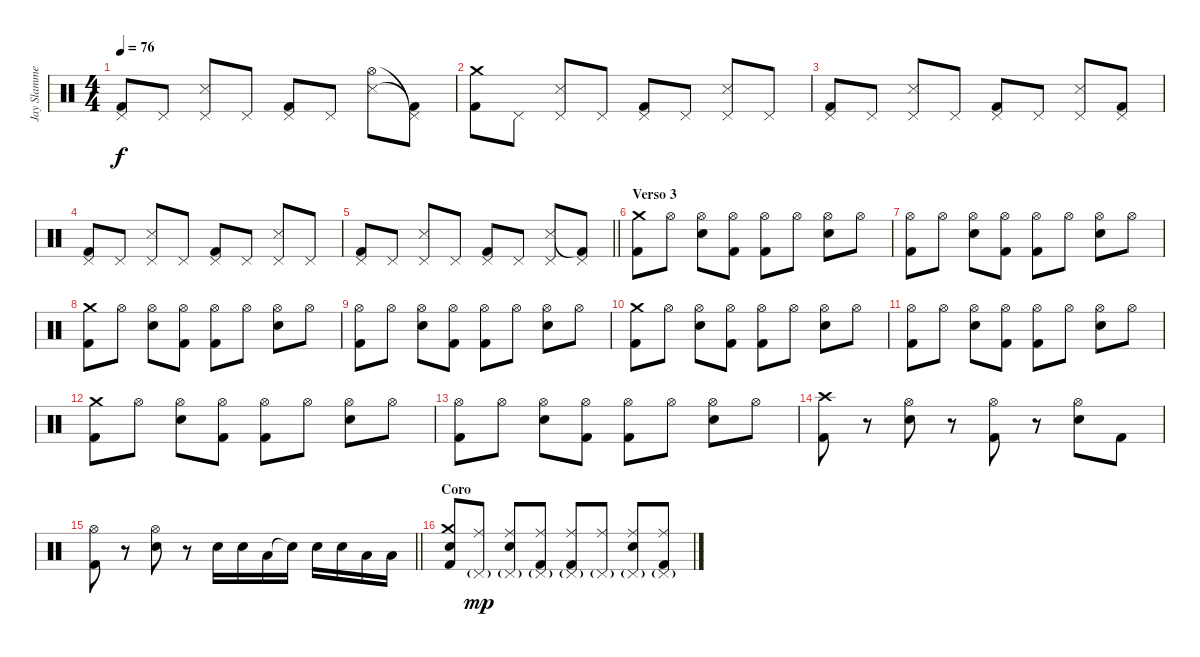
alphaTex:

\track ("Jay Slammer" "Jay Slamme") {instrument percussion}
\staff {score}
\articulation defaults
\ts (4 4)
\tempo 76
\clef neutral
\ks c
("Pedal Hi-Hat (hit)" "Kick (hit) 2").8{dy f} "Pedal Hi-Hat (hit)".8 ("Pedal Hi-Hat (hit)" "Metronome (hit)").8 "Pedal Hi-Hat (hit)".8 ("Pedal Hi-Hat (hit)" "Kick (hit) 2").8 "Pedal Hi-Hat (hit)".8 ("Hi-Hat (open)" "Metronome (hit)").8 ("Pedal Hi-Hat (hit)"{t} "Kick (hit) 2"{t}).8 |
("Crash medium (hit)" "Kick (hit) 2").8 "Pedal Hi-Hat (hit)".8 ("Pedal Hi-Hat (hit)" "Metronome (hit)").8 "Pedal Hi-Hat (hit)".8 ("Pedal Hi-Hat (hit)" "Kick (hit) 2").8 "Pedal Hi-Hat (hit)".8 ("Pedal Hi-Hat (hit)" "Metronome (hit)").8 "Pedal Hi-Hat (hit)".8 |
("Pedal Hi-Hat (hit)" "Kick (hit) 2").8 "Pedal Hi-Hat (hit)".8 ("Pedal Hi-Hat (hit)" "Metronome (hit)").8 "Pedal Hi-Hat (hit)".8 ("Pedal Hi-Hat (hit)" "Kick (hit) 2").8 "Pedal Hi-Hat (hit)".8 ("Pedal Hi-Hat (hit)" "Metronome (hit)").8 ("Pedal Hi-Hat (hit)" "Kick (hit) 2").8 |
("Pedal Hi-Hat (hit)" "Kick (hit) 2").8 "Pedal Hi-Hat (hit)".8 ("Pedal Hi-Hat (hit)" "Metronome (hit)").8 "Pedal Hi-Hat (hit)".8 ("Pedal Hi-Hat (hit)" "Kick (hit) 2").8 "Pedal Hi-Hat (hit)".8 ("Pedal Hi-Hat (hit)" "Metronome (hit)").8 "Pedal Hi-Hat (hit)".8 |
\barLineRight lightlight
("Pedal Hi-Hat (hit)" "Kick (hit) 2").8 "Pedal Hi-Hat (hit)".8 ("Pedal Hi-Hat (hit)" "Metronome (hit)").8 "Pedal Hi-Hat (hit)".8 ("Pedal Hi-Hat (hit)" "Kick (hit) 2").8 "Pedal Hi-Hat (hit)".8 ("Pedal Hi-Hat (hit)" "Metronome (hit)").8 ("Pedal Hi-Hat (hit)" "Kick (hit) 2"{t}).8 |
\section ("" "Verso 3")
("Crash medium (hit)" "Kick (hit) 2").8 "Hi-Hat (open)".8 ("Hi-Hat (open)" "Electric Snare (hit)").8 ("Hi-Hat (open)" "Kick (hit) 2").8 ("Hi-Hat (open)" "Kick (hit) 2").8 "Hi-Hat (open)".8 ("Hi-Hat (open)" "Electric Snare (hit)").8 "Hi-Hat (open)".8 |
("Hi-Hat (open)" "Kick (hit) 2").8 "Hi-Hat (open)".8 ("Hi-Hat (open)" "Electric Snare (hit)").8 ("Hi-Hat (open)" "Kick (hit) 2").8 ("Hi-Hat (open)" "Kick (hit) 2").8 "Hi-Hat (open)".8 ("Hi-Hat (open)" "Electric Snare (hit)").8 "Hi-Hat (open)".8 |
("Crash medium (hit)" "Kick (hit) 2").8 "Hi-Hat (open)".8 ("Hi-Hat (open)" "Electric Snare (hit)").8 ("Hi-Hat (open)" "Kick (hit) 2").8 ("Hi-Hat (open)" "Kick (hit) 2").8 "Hi-Hat (open)".8 ("Hi-Hat (open)" "Electric Snare (hit)").8 "Hi-Hat (open)".8 |
("Hi-Hat (open)" "Kick (hit) 2").8 "Hi-Hat (open)".8 ("Hi-Hat (open)" "Electric Snare (hit)").8 ("Hi-Hat (open)" "Kick (hit) 2").8 ("Hi-Hat (open)" "Kick (hit) 2").8 "Hi-Hat (open)".8 ("Hi-Hat (open)" "Electric Snare (hit)").8 "Hi-Hat (open)".8 |
("Crash medium (hit)" "Kick (hit) 2").8 "Hi-Hat (open)".8 ("Hi-Hat (open)" "Electric Snare (hit)").8 ("Hi-Hat (open)" "Kick (hit) 2").8 ("Hi-Hat (open)" "Kick (hit) 2").8 "Hi-Hat (open)".8 ("Hi-Hat (open)" "Electric Snare (hit)").8 "Hi-Hat (open)".8 |
("Hi-Hat (open)" "Kick (hit) 2").8 "Hi-Hat (open)".8 ("Hi-Hat (open)" "Electric Snare (hit)").8 ("Hi-Hat (open)" "Kick (hit) 2").8 ("Hi-Hat (open)" "Kick (hit) 2").8 "Hi-Hat (open)".8 ("Hi-Hat (open)" "Electric Snare (hit)").8 "Hi-Hat (open)".8 |
("Crash medium (hit)" "Kick (hit) 2").8 "Hi-Hat (open)".8 ("Hi-Hat (open)" "Electric Snare (hit)").8 ("Hi-Hat (open)" "Kick (hit) 2").8 ("Hi-Hat (open)" "Kick (hit) 2").8 "Hi-Hat (open)".8 ("Hi-Hat (open)" "Electric Snare (hit)").8 "Hi-Hat (open)".8 |
("Hi-Hat (open)" "Kick (hit) 2").8 "Hi-Hat (open)".8 ("Hi-Hat (open)" "Electric Snare (hit)").8 ("Hi-Hat (open)" "Kick (hit) 2").8 ("Hi-Hat (open)" "Kick (hit) 2").8 "Hi-Hat (open)".8 ("Hi-Hat (open)" "Electric Snare (hit)").8 "Hi-Hat (open)".8 |
("Crash high (hit)" "Kick (hit) 2").8 r.8 ("Hi-Hat (open)" "Electric Snare (hit)").8 r.8 ("Hi-Hat (open)" "Kick (hit) 2").8 r.8 ("Hi-Hat (open)" "Electric Snare (hit)").8 "Kick (hit) 2".8 |
\barLineRight lightlight
("Hi-Hat (open)" "Kick (hit) 2").8 r.8 ("Hi-Hat (open)" "Electric Snare (hit)").8 r.8 "Electric Snare (hit)".16 "Electric Snare (hit)".16 "Low Tom (hit)".16 "Snare (hit)"{t}.16 "Electric Snare (hit)".16 "Electric Snare (hit)".16 "Low Tom (hit)".16 "Low Tom (hit)".16 |
\section ("" "Coro ")
("Snare (hit)" "Crash medium (hit)" "Kick (hit) 2").8 ("Pedal Hi-Hat (hit)"{g} "Ride (middle)").8{dy mp} ("Pedal Hi-Hat (hit)"{g} "Ride (middle)" "Electric Snare (hit)").8 ("Pedal Hi-Hat (hit)"{g} "Ride (middle)" "Kick (hit) 2").8 ("Pedal Hi-Hat (hit)"{g} "Ride (middle)" "Kick (hit) 2").8 ("Pedal Hi-Hat (hit)"{g} "Ride (middle)").8 ("Pedal Hi-Hat (hit)"{g} "Ride (middle)" "Electric Snare (hit)").8 ("Pedal Hi-Hat (hit)"{g} "Ride (middle)" "Kick (hit) 2").8
